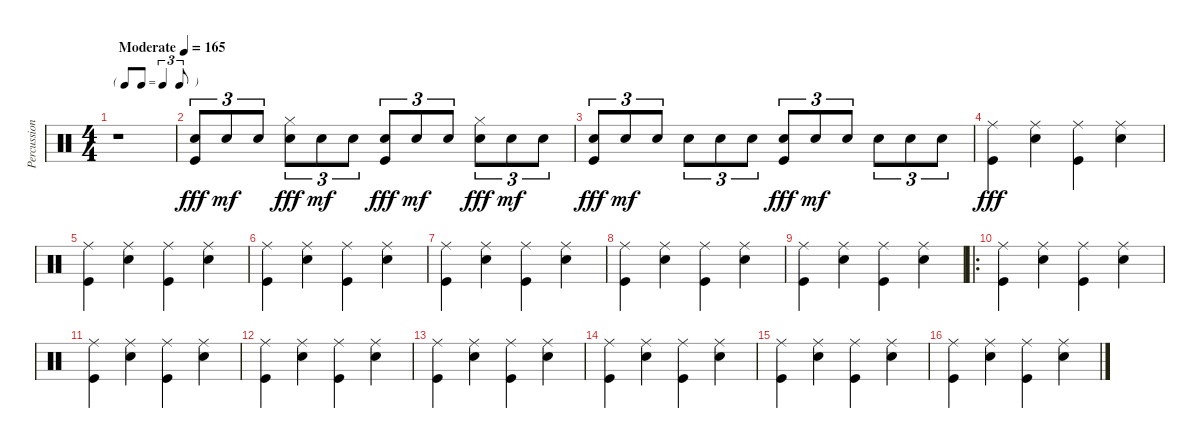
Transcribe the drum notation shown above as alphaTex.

\track ("Percussions" "Percussion") {instrument percussion}
\staff {score}
\articulation defaults
\ts (4 4)
\tf triplet8th
\tempo (165 "Moderate")
\clef neutral
\ks c
r.1{dy fff} |
("Electric Snare (hit)" "Kick (hit)").8{tu (3 2)} "Electric Snare (hit)".8{tu (3 2) dy mf} "Electric Snare (hit)".8{tu (3 2)} ("Electric Snare (hit)" "Hi-Hat (closed)").8{tu (3 2) dy fff} "Electric Snare (hit)".8{tu (3 2) dy mf} "Electric Snare (hit)".8{tu (3 2)} ("Electric Snare (hit)" "Kick (hit)").8{tu (3 2) dy fff} "Electric Snare (hit)".8{tu (3 2) dy mf} "Electric Snare (hit)".8{tu (3 2)} ("Electric Snare (hit)" "Hi-Hat (closed)").8{tu (3 2) dy fff} "Electric Snare (hit)".8{tu (3 2) dy mf} "Electric Snare (hit)".8{tu (3 2)} |
("Electric Snare (hit)" "Kick (hit)").8{tu (3 2) dy fff} "Electric Snare (hit)".8{tu (3 2) dy mf} "Electric Snare (hit)".8{tu (3 2)} "Electric Snare (hit)".8{tu (3 2)} "Electric Snare (hit)".8{tu (3 2)} "Electric Snare (hit)".8{tu (3 2)} ("Electric Snare (hit)" "Kick (hit)").8{tu (3 2) dy fff} "Electric Snare (hit)".8{tu (3 2) dy mf} "Electric Snare (hit)".8{tu (3 2)} "Electric Snare (hit)".8{tu (3 2)} "Electric Snare (hit)".8{tu (3 2)} "Electric Snare (hit)".8{tu (3 2)} |
("Kick (hit)" "Ride (middle)").4{dy fff} ("Electric Snare (hit)" "Ride (middle)").4 ("Kick (hit)" "Ride (middle)").4 ("Electric Snare (hit)" "Ride (middle)").4 |
("Kick (hit)" "Ride (middle)").4 ("Electric Snare (hit)" "Ride (middle)").4 ("Kick (hit)" "Ride (middle)").4 ("Electric Snare (hit)" "Ride (middle)").4 |
("Kick (hit)" "Ride (middle)").4 ("Electric Snare (hit)" "Ride (middle)").4 ("Kick (hit)" "Ride (middle)").4 ("Electric Snare (hit)" "Ride (middle)").4 |
("Kick (hit)" "Ride (middle)").4 ("Electric Snare (hit)" "Ride (middle)").4 ("Kick (hit)" "Ride (middle)").4 ("Electric Snare (hit)" "Ride (middle)").4 |
("Kick (hit)" "Ride (middle)").4 ("Electric Snare (hit)" "Ride (middle)").4 ("Kick (hit)" "Ride (middle)").4 ("Electric Snare (hit)" "Ride (middle)").4 |
("Kick (hit)" "Ride (middle)").4 ("Electric Snare (hit)" "Ride (middle)").4 ("Kick (hit)" "Ride (middle)").4 ("Electric Snare (hit)" "Ride (middle)").4 |
\ro
("Kick (hit)" "Ride (middle)").4 ("Electric Snare (hit)" "Ride (middle)").4 ("Kick (hit)" "Ride (middle)").4 ("Electric Snare (hit)" "Ride (middle)").4 |
("Kick (hit)" "Ride (middle)").4 ("Electric Snare (hit)" "Ride (middle)").4 ("Kick (hit)" "Ride (middle)").4 ("Electric Snare (hit)" "Ride (middle)").4 |
("Kick (hit)" "Ride (middle)").4 ("Electric Snare (hit)" "Ride (middle)").4 ("Kick (hit)" "Ride (middle)").4 ("Electric Snare (hit)" "Ride (middle)").4 |
("Kick (hit)" "Ride (middle)").4 ("Electric Snare (hit)" "Ride (middle)").4 ("Kick (hit)" "Ride (middle)").4 ("Electric Snare (hit)" "Ride (middle)").4 |
("Kick (hit)" "Ride (middle)").4 ("Electric Snare (hit)" "Ride (middle)").4 ("Kick (hit)" "Ride (middle)").4 ("Electric Snare (hit)" "Ride (middle)").4 |
("Kick (hit)" "Ride (middle)").4 ("Electric Snare (hit)" "Ride (middle)").4 ("Kick (hit)" "Ride (middle)").4 ("Electric Snare (hit)" "Ride (middle)").4 |
("Kick (hit)" "Ride (middle)").4 ("Electric Snare (hit)" "Ride (middle)").4 ("Kick (hit)" "Ride (middle)").4 ("Electric Snare (hit)" "Ride (middle)").4
